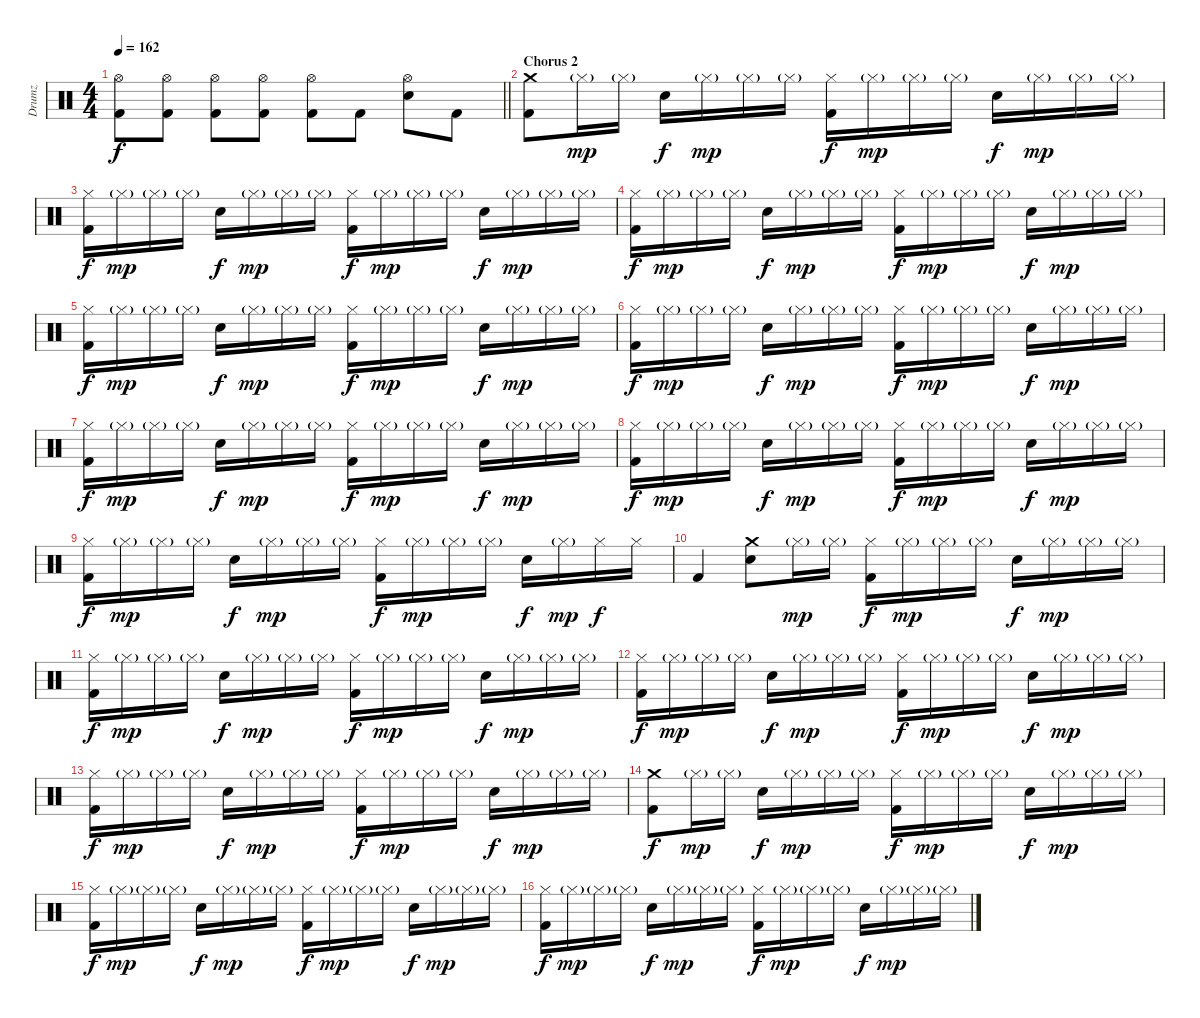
\track ("Drumz" "Drumz") {instrument percussion}
\staff {score}
\articulation defaults
\ts (4 4)
\tempo 162
\clef neutral
\barLineRight lightlight
\ks c
("Hi-Hat (open)" "Kick (hit) 2").8{dy f} ("Hi-Hat (open)" "Kick (hit) 2").8 ("Hi-Hat (open)" "Kick (hit) 2").8 ("Hi-Hat (open)" "Kick (hit) 2").8 ("Hi-Hat (open)" "Kick (hit) 2").8 "Kick (hit) 2".8 ("Hi-Hat (open)" "Electric Snare (hit)").8 "Kick (hit) 2".8 |
\section ("" "Chorus 2")
("Crash medium (hit)" "Kick (hit) 2").8 "Hi-Hat (closed)"{g}.16{dy mp} "Hi-Hat (closed)"{g}.16 "Electric Snare (hit)".16{dy f} "Hi-Hat (closed)"{g}.16{dy mp} "Hi-Hat (closed)"{g}.16 "Hi-Hat (closed)"{g}.16 ("Hi-Hat (closed)" "Kick (hit) 2").16{dy f} "Hi-Hat (closed)"{g}.16{dy mp} "Hi-Hat (closed)"{g}.16 "Hi-Hat (closed)"{g}.16 "Electric Snare (hit)".16{dy f} "Hi-Hat (closed)"{g}.16{dy mp} "Hi-Hat (closed)"{g}.16 "Hi-Hat (closed)"{g}.16 |
("Hi-Hat (closed)" "Kick (hit) 2").16{dy f} "Hi-Hat (closed)"{g}.16{dy mp} "Hi-Hat (closed)"{g}.16 "Hi-Hat (closed)"{g}.16 "Electric Snare (hit)".16{dy f} "Hi-Hat (closed)"{g}.16{dy mp} "Hi-Hat (closed)"{g}.16 "Hi-Hat (closed)"{g}.16 ("Hi-Hat (closed)" "Kick (hit) 2").16{dy f} "Hi-Hat (closed)"{g}.16{dy mp} "Hi-Hat (closed)"{g}.16 "Hi-Hat (closed)"{g}.16 "Electric Snare (hit)".16{dy f} "Hi-Hat (closed)"{g}.16{dy mp} "Hi-Hat (closed)"{g}.16 "Hi-Hat (closed)"{g}.16 |
("Hi-Hat (closed)" "Kick (hit) 2").16{dy f} "Hi-Hat (closed)"{g}.16{dy mp} "Hi-Hat (closed)"{g}.16 "Hi-Hat (closed)"{g}.16 "Electric Snare (hit)".16{dy f} "Hi-Hat (closed)"{g}.16{dy mp} "Hi-Hat (closed)"{g}.16 "Hi-Hat (closed)"{g}.16 ("Hi-Hat (closed)" "Kick (hit) 2").16{dy f} "Hi-Hat (closed)"{g}.16{dy mp} "Hi-Hat (closed)"{g}.16 "Hi-Hat (closed)"{g}.16 "Electric Snare (hit)".16{dy f} "Hi-Hat (closed)"{g}.16{dy mp} "Hi-Hat (closed)"{g}.16 "Hi-Hat (closed)"{g}.16 |
("Hi-Hat (closed)" "Kick (hit) 2").16{dy f} "Hi-Hat (closed)"{g}.16{dy mp} "Hi-Hat (closed)"{g}.16 "Hi-Hat (closed)"{g}.16 "Electric Snare (hit)".16{dy f} "Hi-Hat (closed)"{g}.16{dy mp} "Hi-Hat (closed)"{g}.16 "Hi-Hat (closed)"{g}.16 ("Hi-Hat (closed)" "Kick (hit) 2").16{dy f} "Hi-Hat (closed)"{g}.16{dy mp} "Hi-Hat (closed)"{g}.16 "Hi-Hat (closed)"{g}.16 "Electric Snare (hit)".16{dy f} "Hi-Hat (closed)"{g}.16{dy mp} "Hi-Hat (closed)"{g}.16 "Hi-Hat (closed)"{g}.16 |
("Hi-Hat (closed)" "Kick (hit) 2").16{dy f} "Hi-Hat (closed)"{g}.16{dy mp} "Hi-Hat (closed)"{g}.16 "Hi-Hat (closed)"{g}.16 "Electric Snare (hit)".16{dy f} "Hi-Hat (closed)"{g}.16{dy mp} "Hi-Hat (closed)"{g}.16 "Hi-Hat (closed)"{g}.16 ("Hi-Hat (closed)" "Kick (hit) 2").16{dy f} "Hi-Hat (closed)"{g}.16{dy mp} "Hi-Hat (closed)"{g}.16 "Hi-Hat (closed)"{g}.16 "Electric Snare (hit)".16{dy f} "Hi-Hat (closed)"{g}.16{dy mp} "Hi-Hat (closed)"{g}.16 "Hi-Hat (closed)"{g}.16 |
("Hi-Hat (closed)" "Kick (hit) 2").16{dy f} "Hi-Hat (closed)"{g}.16{dy mp} "Hi-Hat (closed)"{g}.16 "Hi-Hat (closed)"{g}.16 "Electric Snare (hit)".16{dy f} "Hi-Hat (closed)"{g}.16{dy mp} "Hi-Hat (closed)"{g}.16 "Hi-Hat (closed)"{g}.16 ("Hi-Hat (closed)" "Kick (hit) 2").16{dy f} "Hi-Hat (closed)"{g}.16{dy mp} "Hi-Hat (closed)"{g}.16 "Hi-Hat (closed)"{g}.16 "Electric Snare (hit)".16{dy f} "Hi-Hat (closed)"{g}.16{dy mp} "Hi-Hat (closed)"{g}.16 "Hi-Hat (closed)"{g}.16 |
("Hi-Hat (closed)" "Kick (hit) 2").16{dy f} "Hi-Hat (closed)"{g}.16{dy mp} "Hi-Hat (closed)"{g}.16 "Hi-Hat (closed)"{g}.16 "Electric Snare (hit)".16{dy f} "Hi-Hat (closed)"{g}.16{dy mp} "Hi-Hat (closed)"{g}.16 "Hi-Hat (closed)"{g}.16 ("Hi-Hat (closed)" "Kick (hit) 2").16{dy f} "Hi-Hat (closed)"{g}.16{dy mp} "Hi-Hat (closed)"{g}.16 "Hi-Hat (closed)"{g}.16 "Electric Snare (hit)".16{dy f} "Hi-Hat (closed)"{g}.16{dy mp} "Hi-Hat (closed)"{g}.16 "Hi-Hat (closed)"{g}.16 |
("Hi-Hat (closed)" "Kick (hit) 2").16{dy f} "Hi-Hat (closed)"{g}.16{dy mp} "Hi-Hat (closed)"{g}.16 "Hi-Hat (closed)"{g}.16 "Electric Snare (hit)".16{dy f} "Hi-Hat (closed)"{g}.16{dy mp} "Hi-Hat (closed)"{g}.16 "Hi-Hat (closed)"{g}.16 ("Hi-Hat (closed)" "Kick (hit) 2").16{dy f} "Hi-Hat (closed)"{g}.16{dy mp} "Hi-Hat (closed)"{g}.16 "Hi-Hat (closed)"{g}.16 "Electric Snare (hit)".16{dy f} "Hi-Hat (closed)"{g}.16{dy mp} "Hi-Hat (closed)".16{dy f} "Hi-Hat (closed)".16 |
"Kick (hit) 2".4 ("Crash medium (hit)" "Electric Snare (hit)").8 "Hi-Hat (closed)"{g}.16{dy mp} "Hi-Hat (closed)"{g}.16 ("Hi-Hat (closed)" "Kick (hit) 2").16{dy f} "Hi-Hat (closed)"{g}.16{dy mp} "Hi-Hat (closed)"{g}.16 "Hi-Hat (closed)"{g}.16 "Electric Snare (hit)".16{dy f} "Hi-Hat (closed)"{g}.16{dy mp} "Hi-Hat (closed)"{g}.16 "Hi-Hat (closed)"{g}.16 |
("Hi-Hat (closed)" "Kick (hit) 2").16{dy f} "Hi-Hat (closed)"{g}.16{dy mp} "Hi-Hat (closed)"{g}.16 "Hi-Hat (closed)"{g}.16 "Electric Snare (hit)".16{dy f} "Hi-Hat (closed)"{g}.16{dy mp} "Hi-Hat (closed)"{g}.16 "Hi-Hat (closed)"{g}.16 ("Hi-Hat (closed)" "Kick (hit) 2").16{dy f} "Hi-Hat (closed)"{g}.16{dy mp} "Hi-Hat (closed)"{g}.16 "Hi-Hat (closed)"{g}.16 "Electric Snare (hit)".16{dy f} "Hi-Hat (closed)"{g}.16{dy mp} "Hi-Hat (closed)"{g}.16 "Hi-Hat (closed)"{g}.16 |
("Hi-Hat (closed)" "Kick (hit) 2").16{dy f} "Hi-Hat (closed)"{g}.16{dy mp} "Hi-Hat (closed)"{g}.16 "Hi-Hat (closed)"{g}.16 "Electric Snare (hit)".16{dy f} "Hi-Hat (closed)"{g}.16{dy mp} "Hi-Hat (closed)"{g}.16 "Hi-Hat (closed)"{g}.16 ("Hi-Hat (closed)" "Kick (hit) 2").16{dy f} "Hi-Hat (closed)"{g}.16{dy mp} "Hi-Hat (closed)"{g}.16 "Hi-Hat (closed)"{g}.16 "Electric Snare (hit)".16{dy f} "Hi-Hat (closed)"{g}.16{dy mp} "Hi-Hat (closed)"{g}.16 "Hi-Hat (closed)"{g}.16 |
("Hi-Hat (closed)" "Kick (hit) 2").16{dy f} "Hi-Hat (closed)"{g}.16{dy mp} "Hi-Hat (closed)"{g}.16 "Hi-Hat (closed)"{g}.16 "Electric Snare (hit)".16{dy f} "Hi-Hat (closed)"{g}.16{dy mp} "Hi-Hat (closed)"{g}.16 "Hi-Hat (closed)"{g}.16 ("Hi-Hat (closed)" "Kick (hit) 2").16{dy f} "Hi-Hat (closed)"{g}.16{dy mp} "Hi-Hat (closed)"{g}.16 "Hi-Hat (closed)"{g}.16 "Electric Snare (hit)".16{dy f} "Hi-Hat (closed)"{g}.16{dy mp} "Hi-Hat (closed)"{g}.16 "Hi-Hat (closed)"{g}.16 |
("Crash medium (hit)" "Kick (hit) 2").8{dy f} "Hi-Hat (closed)"{g}.16{dy mp} "Hi-Hat (closed)"{g}.16 "Electric Snare (hit)".16{dy f} "Hi-Hat (closed)"{g}.16{dy mp} "Hi-Hat (closed)"{g}.16 "Hi-Hat (closed)"{g}.16 ("Hi-Hat (closed)" "Kick (hit) 2").16{dy f} "Hi-Hat (closed)"{g}.16{dy mp} "Hi-Hat (closed)"{g}.16 "Hi-Hat (closed)"{g}.16 "Electric Snare (hit)".16{dy f} "Hi-Hat (closed)"{g}.16{dy mp} "Hi-Hat (closed)"{g}.16 "Hi-Hat (closed)"{g}.16 |
("Hi-Hat (closed)" "Kick (hit) 2").16{dy f} "Hi-Hat (closed)"{g}.16{dy mp} "Hi-Hat (closed)"{g}.16 "Hi-Hat (closed)"{g}.16 "Electric Snare (hit)".16{dy f} "Hi-Hat (closed)"{g}.16{dy mp} "Hi-Hat (closed)"{g}.16 "Hi-Hat (closed)"{g}.16 ("Hi-Hat (closed)" "Kick (hit) 2").16{dy f} "Hi-Hat (closed)"{g}.16{dy mp} "Hi-Hat (closed)"{g}.16 "Hi-Hat (closed)"{g}.16 "Electric Snare (hit)".16{dy f} "Hi-Hat (closed)"{g}.16{dy mp} "Hi-Hat (closed)"{g}.16 "Hi-Hat (closed)"{g}.16 |
("Hi-Hat (closed)" "Kick (hit) 2").16{dy f} "Hi-Hat (closed)"{g}.16{dy mp} "Hi-Hat (closed)"{g}.16 "Hi-Hat (closed)"{g}.16 "Electric Snare (hit)".16{dy f} "Hi-Hat (closed)"{g}.16{dy mp} "Hi-Hat (closed)"{g}.16 "Hi-Hat (closed)"{g}.16 ("Hi-Hat (closed)" "Kick (hit) 2").16{dy f} "Hi-Hat (closed)"{g}.16{dy mp} "Hi-Hat (closed)"{g}.16 "Hi-Hat (closed)"{g}.16 "Electric Snare (hit)".16{dy f} "Hi-Hat (closed)"{g}.16{dy mp} "Hi-Hat (closed)"{g}.16 "Hi-Hat (closed)"{g}.16
